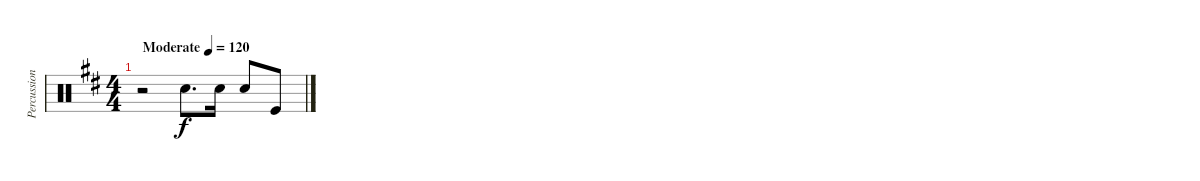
\track ("Percussion" "Percussion") {instrument percussion}
\staff {score}
\articulation defaults
\ts (4 4)
\tempo (120 "Moderate")
\clef neutral
\ks d
r.2{dy f} "Snare (hit) 2".8{d} "Snare (hit) 2".16 "Snare (hit) 2".8 "Kick (hit)".8
